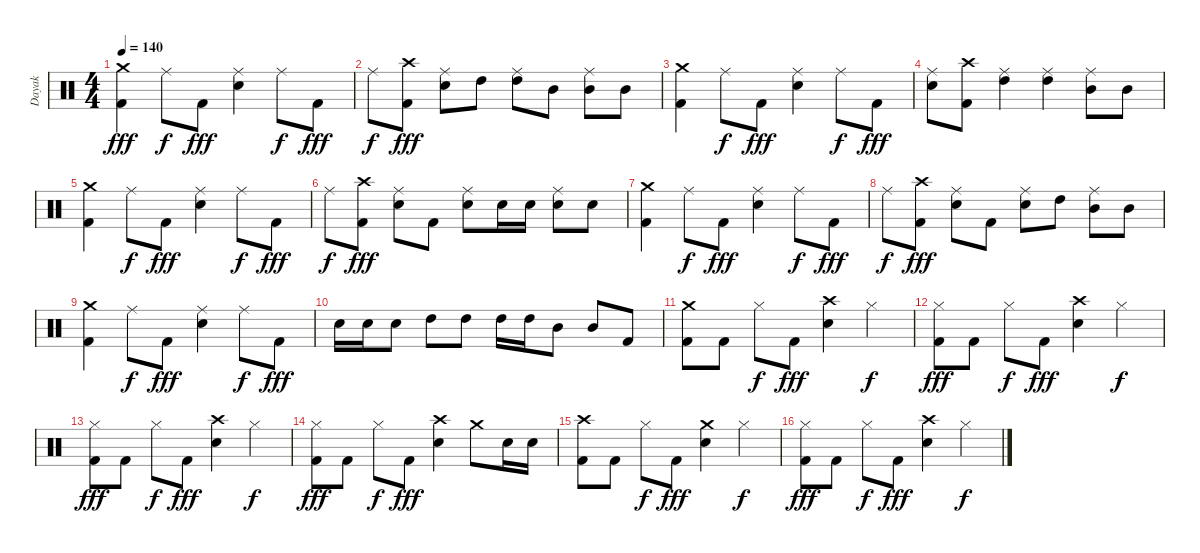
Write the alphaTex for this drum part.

\track ("Dayak" "Dayak") {instrument percussion}
\staff {score}
\articulation defaults
\ts (4 4)
\tempo 140
\clef neutral
\ks c
("Crash medium (hit)" "Kick (hit) 2").4{dy fff} "Ride (middle)".8{dy f} "Kick (hit) 2".8{dy fff} ("Ride (middle)" "Snare (hit) 2").4 "Ride (middle)".8{dy f} "Kick (hit) 2".8{dy fff} |
"Ride (middle)".8{dy f} ("Crash high (hit)" "Kick (hit) 2").8{dy fff} ("Ride (middle)" "Snare (hit) 2").8 "High Tom (hit)".8 ("Ride (middle)" "High Tom (hit)").8 "Mid Tom (hit)".8 ("Ride (middle)" "Mid Tom (hit)").8 "Mid Tom (hit)".8 |
("Crash medium (hit)" "Kick (hit) 2").4 "Ride (middle)".8{dy f} "Kick (hit) 2".8{dy fff} ("Ride (middle)" "Snare (hit) 2").4 "Ride (middle)".8{dy f} "Kick (hit) 2".8{dy fff} |
("Ride (middle)" "Snare (hit) 2").8 ("Crash high (hit)" "Kick (hit) 2").8 ("Ride (middle)" "High Tom (hit)").4 ("Ride (middle)" "High Tom (hit)").4 ("Ride (middle)" "Mid Tom (hit)").8 "Mid Tom (hit)".8 |
("Crash medium (hit)" "Kick (hit) 2").4 "Ride (middle)".8{dy f} "Kick (hit) 2".8{dy fff} ("Ride (middle)" "Snare (hit) 2").4 "Ride (middle)".8{dy f} "Kick (hit) 2".8{dy fff} |
"Ride (middle)".8{dy f} ("Crash high (hit)" "Kick (hit) 2").8{dy fff} ("Ride (middle)" "Snare (hit) 2").8 "Kick (hit) 2".8 ("Ride (middle)" "Snare (hit) 2").8 "Snare (hit) 2".16 "Snare (hit) 2".16 ("Ride (middle)" "Snare (hit) 2").8 "Snare (hit) 2".8 |
("Crash medium (hit)" "Kick (hit) 2").4 "Ride (middle)".8{dy f} "Kick (hit) 2".8{dy fff} ("Ride (middle)" "Snare (hit) 2").4 "Ride (middle)".8{dy f} "Kick (hit) 2".8{dy fff} |
"Ride (middle)".8{dy f} ("Crash high (hit)" "Kick (hit) 2").8{dy fff} ("Ride (middle)" "Snare (hit) 2").8 "Kick (hit) 2".8 ("Ride (middle)" "Snare (hit) 2").8 "High Tom (hit)".8 ("Ride (middle)" "Mid Tom (hit)").8 "Mid Tom (hit)".8 |
("Crash medium (hit)" "Kick (hit) 2").4 "Ride (middle)".8{dy f} "Kick (hit) 2".8{dy fff} ("Ride (middle)" "Snare (hit) 2").4 "Ride (middle)".8{dy f} "Kick (hit) 2".8{dy fff} |
"Snare (hit) 2".16 "Snare (hit) 2".16 "Snare (hit) 2".8 "High Tom (hit)".8 "High Tom (hit)".8 "High Tom (hit)".16 "High Tom (hit)".16 "Mid Tom (hit)".8 "Mid Tom (hit)".8 "Kick (hit) 2".8 |
("Crash medium (hit)" "Kick (hit) 2").8 "Kick (hit) 2".8 "Hi-Hat (closed)".8{dy f} "Kick (hit) 2".8{dy fff} ("Crash high (hit)" "Snare (hit) 2").4 "Hi-Hat (closed)".4{dy f} |
("Hi-Hat (closed)" "Kick (hit) 2").8{dy fff} "Kick (hit) 2".8 "Hi-Hat (closed)".8{dy f} "Kick (hit) 2".8{dy fff} ("Crash high (hit)" "Snare (hit) 2").4 "Hi-Hat (closed)".4{dy f} |
("Hi-Hat (closed)" "Kick (hit) 2").8{dy fff} "Kick (hit) 2".8 "Hi-Hat (closed)".8{dy f} "Kick (hit) 2".8{dy fff} ("Crash high (hit)" "Snare (hit) 2").4 "Hi-Hat (closed)".4{dy f} |
("Hi-Hat (closed)" "Kick (hit) 2").8{dy fff} "Kick (hit) 2".8 "Hi-Hat (closed)".8{dy f} "Kick (hit) 2".8{dy fff} ("Crash high (hit)" "Snare (hit) 2").4 "Crash medium (hit)".8 "Snare (hit) 2".16 "Snare (hit) 2".16 |
("Crash high (hit)" "Kick (hit) 2").8 "Kick (hit) 2".8 "Hi-Hat (closed)".8{dy f} "Kick (hit) 2".8{dy fff} ("Crash medium (hit)" "Snare (hit) 2").4 "Hi-Hat (closed)".4{dy f} |
("Hi-Hat (closed)" "Kick (hit) 2").8{dy fff} "Kick (hit) 2".8 "Hi-Hat (closed)".8{dy f} "Kick (hit) 2".8{dy fff} ("Crash high (hit)" "Snare (hit) 2").4 "Hi-Hat (closed)".4{dy f}
